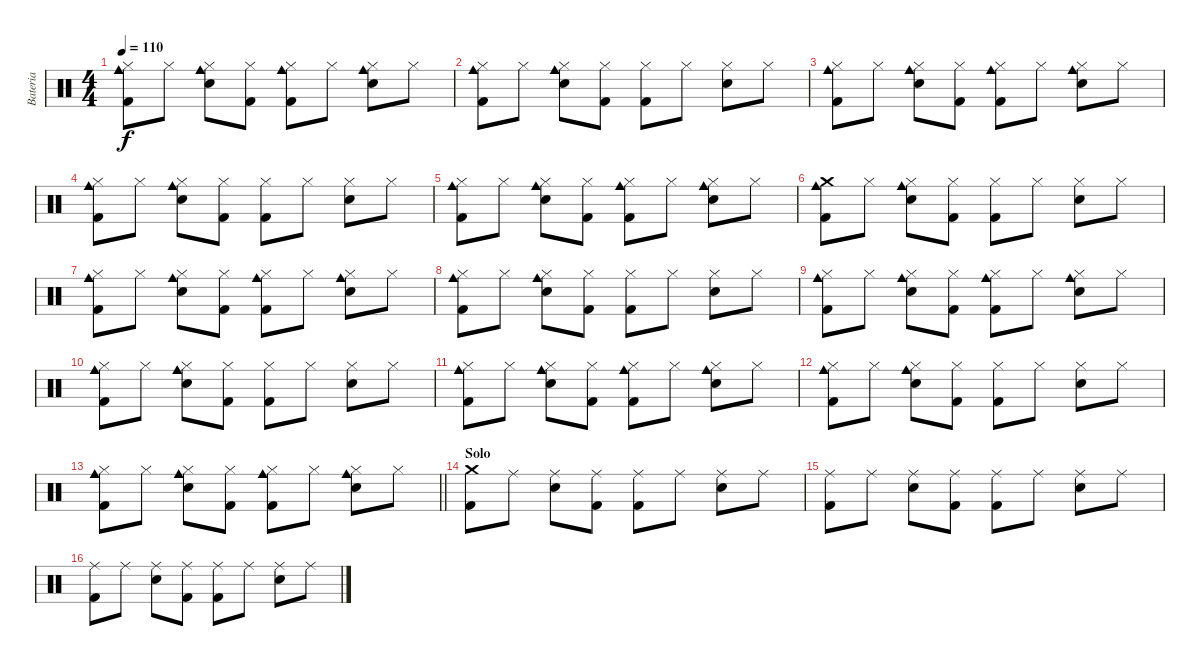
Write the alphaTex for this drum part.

\track ("Bateria" "Bateria") {instrument percussion}
\staff {score}
\articulation defaults
\ts (4 4)
\tempo 110
\clef neutral
\ks c
("Hi-Hat (closed)" "Cowbell medium (hit)" "Kick (hit) 2").8{dy f} "Hi-Hat (closed)".8 ("Hi-Hat (closed)" "Electric Snare (hit)" "Cowbell medium (hit)").8 ("Hi-Hat (closed)" "Kick (hit) 2").8 ("Hi-Hat (closed)" "Cowbell medium (hit)" "Kick (hit) 2").8 "Hi-Hat (closed)".8 ("Hi-Hat (closed)" "Electric Snare (hit)" "Cowbell medium (hit)").8 "Hi-Hat (closed)".8 |
("Hi-Hat (closed)" "Cowbell medium (hit)" "Kick (hit) 2").8 "Hi-Hat (closed)".8 ("Hi-Hat (closed)" "Electric Snare (hit)" "Cowbell medium (hit)").8 ("Hi-Hat (closed)" "Kick (hit) 2").8 ("Hi-Hat (closed)" "Kick (hit) 2").8 "Hi-Hat (closed)".8 ("Hi-Hat (closed)" "Electric Snare (hit)").8 "Hi-Hat (closed)".8 |
("Hi-Hat (closed)" "Cowbell medium (hit)" "Kick (hit) 2").8 "Hi-Hat (closed)".8 ("Hi-Hat (closed)" "Electric Snare (hit)" "Cowbell medium (hit)").8 ("Hi-Hat (closed)" "Kick (hit) 2").8 ("Hi-Hat (closed)" "Cowbell medium (hit)" "Kick (hit) 2").8 "Hi-Hat (closed)".8 ("Hi-Hat (closed)" "Electric Snare (hit)" "Cowbell medium (hit)").8 "Hi-Hat (closed)".8 |
("Hi-Hat (closed)" "Cowbell medium (hit)" "Kick (hit) 2").8 "Hi-Hat (closed)".8 ("Hi-Hat (closed)" "Electric Snare (hit)" "Cowbell medium (hit)").8 ("Hi-Hat (closed)" "Kick (hit) 2").8 ("Hi-Hat (closed)" "Kick (hit) 2").8 "Hi-Hat (closed)".8 ("Hi-Hat (closed)" "Electric Snare (hit)").8 "Hi-Hat (closed)".8 |
("Hi-Hat (closed)" "Cowbell medium (hit)" "Kick (hit) 2").8 "Hi-Hat (closed)".8 ("Hi-Hat (closed)" "Electric Snare (hit)" "Cowbell medium (hit)").8 ("Hi-Hat (closed)" "Kick (hit) 2").8 ("Hi-Hat (closed)" "Cowbell medium (hit)" "Kick (hit) 2").8 "Hi-Hat (closed)".8 ("Hi-Hat (closed)" "Electric Snare (hit)" "Cowbell medium (hit)").8 "Hi-Hat (closed)".8 |
("Crash medium (hit)" "Cowbell medium (hit)" "Kick (hit) 2").8 "Hi-Hat (closed)".8 ("Hi-Hat (closed)" "Electric Snare (hit)" "Cowbell medium (hit)").8 ("Hi-Hat (closed)" "Kick (hit) 2").8 ("Hi-Hat (closed)" "Kick (hit) 2").8 "Hi-Hat (closed)".8 ("Hi-Hat (closed)" "Electric Snare (hit)").8 "Hi-Hat (closed)".8 |
("Hi-Hat (closed)" "Cowbell medium (hit)" "Kick (hit) 2").8 "Hi-Hat (closed)".8 ("Hi-Hat (closed)" "Electric Snare (hit)" "Cowbell medium (hit)").8 ("Hi-Hat (closed)" "Kick (hit) 2").8 ("Hi-Hat (closed)" "Cowbell medium (hit)" "Kick (hit) 2").8 "Hi-Hat (closed)".8 ("Hi-Hat (closed)" "Electric Snare (hit)" "Cowbell medium (hit)").8 "Hi-Hat (closed)".8 |
("Hi-Hat (closed)" "Cowbell medium (hit)" "Kick (hit) 2").8 "Hi-Hat (closed)".8 ("Hi-Hat (closed)" "Electric Snare (hit)" "Cowbell medium (hit)").8 ("Hi-Hat (closed)" "Kick (hit) 2").8 ("Hi-Hat (closed)" "Kick (hit) 2").8 "Hi-Hat (closed)".8 ("Hi-Hat (closed)" "Electric Snare (hit)").8 "Hi-Hat (closed)".8 |
("Hi-Hat (closed)" "Cowbell medium (hit)" "Kick (hit) 2").8 "Hi-Hat (closed)".8 ("Hi-Hat (closed)" "Electric Snare (hit)" "Cowbell medium (hit)").8 ("Hi-Hat (closed)" "Kick (hit) 2").8 ("Hi-Hat (closed)" "Cowbell medium (hit)" "Kick (hit) 2").8 "Hi-Hat (closed)".8 ("Hi-Hat (closed)" "Electric Snare (hit)" "Cowbell medium (hit)").8 "Hi-Hat (closed)".8 |
("Hi-Hat (closed)" "Cowbell medium (hit)" "Kick (hit) 2").8 "Hi-Hat (closed)".8 ("Hi-Hat (closed)" "Electric Snare (hit)" "Cowbell medium (hit)").8 ("Hi-Hat (closed)" "Kick (hit) 2").8 ("Hi-Hat (closed)" "Kick (hit) 2").8 "Hi-Hat (closed)".8 ("Hi-Hat (closed)" "Electric Snare (hit)").8 "Hi-Hat (closed)".8 |
("Hi-Hat (closed)" "Cowbell medium (hit)" "Kick (hit) 2").8 "Hi-Hat (closed)".8 ("Hi-Hat (closed)" "Electric Snare (hit)" "Cowbell medium (hit)").8 ("Hi-Hat (closed)" "Kick (hit) 2").8 ("Hi-Hat (closed)" "Cowbell medium (hit)" "Kick (hit) 2").8 "Hi-Hat (closed)".8 ("Hi-Hat (closed)" "Electric Snare (hit)" "Cowbell medium (hit)").8 "Hi-Hat (closed)".8 |
("Hi-Hat (closed)" "Cowbell medium (hit)" "Kick (hit) 2").8 "Hi-Hat (closed)".8 ("Hi-Hat (closed)" "Electric Snare (hit)" "Cowbell medium (hit)").8 ("Hi-Hat (closed)" "Kick (hit) 2").8 ("Hi-Hat (closed)" "Kick (hit) 2").8 "Hi-Hat (closed)".8 ("Hi-Hat (closed)" "Electric Snare (hit)").8 "Hi-Hat (closed)".8 |
\barLineRight lightlight
("Hi-Hat (closed)" "Cowbell medium (hit)" "Kick (hit) 2").8 "Hi-Hat (closed)".8 ("Hi-Hat (closed)" "Electric Snare (hit)" "Cowbell medium (hit)").8 ("Hi-Hat (closed)" "Kick (hit) 2").8 ("Hi-Hat (closed)" "Cowbell medium (hit)" "Kick (hit) 2").8 "Hi-Hat (closed)".8 ("Hi-Hat (closed)" "Electric Snare (hit)" "Cowbell medium (hit)").8 "Hi-Hat (closed)".8 |
\section ("" "Solo ")
("Crash medium (hit)" "Kick (hit) 2").8 "Ride (middle)".8 ("Ride (middle)" "Electric Snare (hit)").8 ("Ride (middle)" "Kick (hit) 2").8 ("Ride (middle)" "Kick (hit) 2").8 "Ride (middle)".8 ("Ride (middle)" "Electric Snare (hit)").8 "Ride (middle)".8 |
("Ride (middle)" "Kick (hit) 2").8 "Ride (middle)".8 ("Ride (middle)" "Electric Snare (hit)").8 ("Ride (middle)" "Kick (hit) 2").8 ("Ride (middle)" "Kick (hit) 2").8 "Ride (middle)".8 ("Ride (middle)" "Electric Snare (hit)").8 "Ride (middle)".8 |
("Ride (middle)" "Kick (hit) 2").8 "Ride (middle)".8 ("Ride (middle)" "Electric Snare (hit)").8 ("Ride (middle)" "Kick (hit) 2").8 ("Ride (middle)" "Kick (hit) 2").8 "Ride (middle)".8 ("Ride (middle)" "Electric Snare (hit)").8 "Ride (middle)".8
